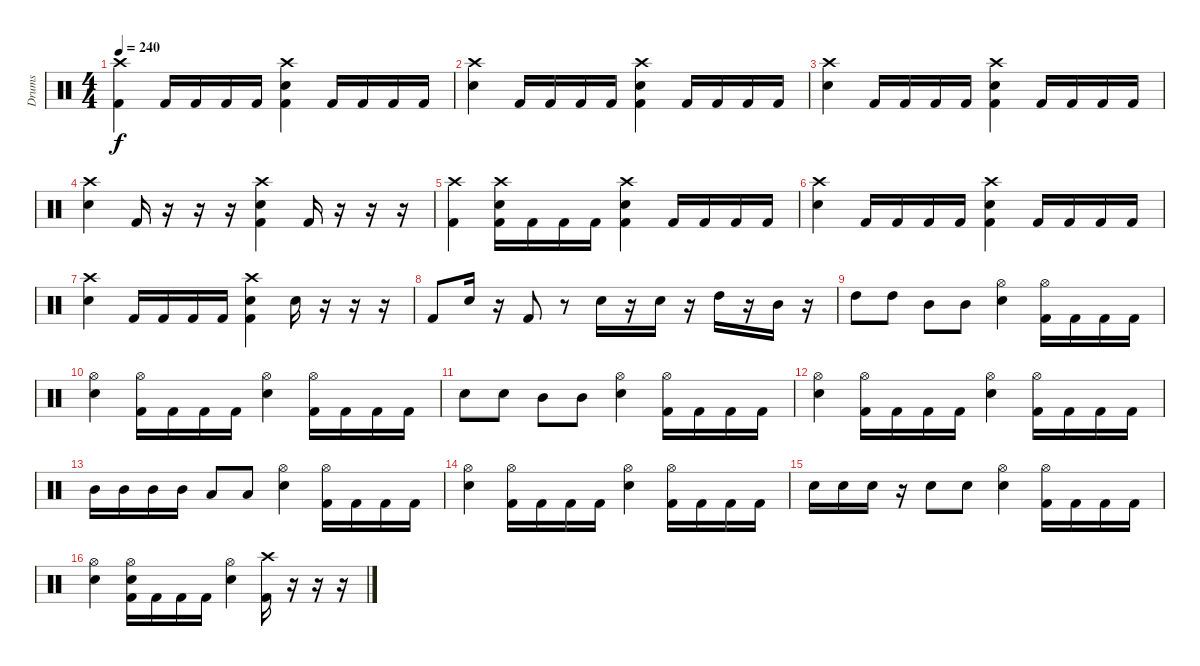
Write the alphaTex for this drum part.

\track ("Drums" "Drums") {instrument percussion}
\staff {score}
\articulation defaults
\ts (4 4)
\tempo 240
\clef neutral
\ks c
("Crash high (hit)" "Kick (hit) 2").4{dy f} "Kick (hit) 2".16 "Kick (hit) 2".16 "Kick (hit) 2".16 "Kick (hit) 2".16 ("Crash high (hit)" "Snare (hit) 2" "Kick (hit) 2").4 "Kick (hit) 2".16 "Kick (hit) 2".16 "Kick (hit) 2".16 "Kick (hit) 2".16 |
("Crash high (hit)" "Snare (hit) 2").4 "Kick (hit) 2".16 "Kick (hit) 2".16 "Kick (hit) 2".16 "Kick (hit) 2".16 ("Crash high (hit)" "Snare (hit) 2" "Kick (hit) 2").4 "Kick (hit) 2".16 "Kick (hit) 2".16 "Kick (hit) 2".16 "Kick (hit) 2".16 |
("Crash high (hit)" "Snare (hit) 2").4 "Kick (hit) 2".16 "Kick (hit) 2".16 "Kick (hit) 2".16 "Kick (hit) 2".16 ("Crash high (hit)" "Snare (hit) 2" "Kick (hit) 2").4 "Kick (hit) 2".16 "Kick (hit) 2".16 "Kick (hit) 2".16 "Kick (hit) 2".16 |
("Crash high (hit)" "Snare (hit) 2").4 "Kick (hit) 2".16 r.16 r.16 r.16 ("Crash high (hit)" "Snare (hit) 2" "Kick (hit) 2").4 "Kick (hit) 2".16 r.16 r.16 r.16 |
("Crash high (hit)" "Kick (hit) 2").4 ("Crash high (hit)" "Snare (hit) 2" "Kick (hit) 2").16 "Kick (hit) 2".16 "Kick (hit) 2".16 "Kick (hit) 2".16 ("Crash high (hit)" "Snare (hit) 2" "Kick (hit) 2").4 "Kick (hit) 2".16 "Kick (hit) 2".16 "Kick (hit) 2".16 "Kick (hit) 2".16 |
("Crash high (hit)" "Snare (hit) 2").4 "Kick (hit) 2".16 "Kick (hit) 2".16 "Kick (hit) 2".16 "Kick (hit) 2".16 ("Crash high (hit)" "Snare (hit) 2" "Kick (hit) 2").4 "Kick (hit) 2".16 "Kick (hit) 2".16 "Kick (hit) 2".16 "Kick (hit) 2".16 |
("Crash high (hit)" "Snare (hit) 2").4 "Kick (hit) 2".16 "Kick (hit) 2".16 "Kick (hit) 2".16 "Kick (hit) 2".16 ("Crash high (hit)" "Snare (hit) 2" "Kick (hit) 2").4 "Snare (hit) 2".16 r.16 r.16 r.16 |
"Kick (hit) 2".8 "Snare (hit) 2".16 r.16 "Kick (hit) 2".8 r.8 "Snare (hit) 2".16 r.16 "Snare (hit) 2".16 r.16 "High Tom (hit)".16 r.16 "Mid Tom (hit)".16 r.16 |
"High Tom (hit)".8 "High Tom (hit)".8 "Mid Tom (hit)".8 "Mid Tom (hit)".8 ("Hi-Hat (open)" "Snare (hit) 2").4 ("Hi-Hat (open)" "Kick (hit) 2").16 "Kick (hit) 2".16 "Kick (hit) 2".16 "Kick (hit) 2".16 |
("Hi-Hat (open)" "Snare (hit) 2").4 ("Hi-Hat (open)" "Kick (hit) 2").16 "Kick (hit) 2".16 "Kick (hit) 2".16 "Kick (hit) 2".16 ("Hi-Hat (open)" "Snare (hit) 2").4 ("Hi-Hat (open)" "Kick (hit) 2").16 "Kick (hit) 2".16 "Kick (hit) 2".16 "Kick (hit) 2".16 |
"Snare (hit) 2".8 "Snare (hit) 2".8 "Mid Tom (hit)".8 "Mid Tom (hit)".8 ("Hi-Hat (open)" "Snare (hit) 2").4 ("Hi-Hat (open)" "Kick (hit) 2").16 "Kick (hit) 2".16 "Kick (hit) 2".16 "Kick (hit) 2".16 |
("Hi-Hat (open)" "Snare (hit) 2").4 ("Hi-Hat (open)" "Kick (hit) 2").16 "Kick (hit) 2".16 "Kick (hit) 2".16 "Kick (hit) 2".16 ("Hi-Hat (open)" "Snare (hit) 2").4 ("Hi-Hat (open)" "Kick (hit) 2").16 "Kick (hit) 2".16 "Kick (hit) 2".16 "Kick (hit) 2".16 |
"Mid Tom (hit)".16 "Mid Tom (hit)".16 "Mid Tom (hit)".16 "Mid Tom (hit)".16 "Low Tom (hit)".8 "Low Tom (hit)".8 ("Hi-Hat (open)" "Snare (hit) 2").4 ("Hi-Hat (open)" "Kick (hit) 2").16 "Kick (hit) 2".16 "Kick (hit) 2".16 "Kick (hit) 2".16 |
("Hi-Hat (open)" "Snare (hit) 2").4 ("Hi-Hat (open)" "Kick (hit) 2").16 "Kick (hit) 2".16 "Kick (hit) 2".16 "Kick (hit) 2".16 ("Hi-Hat (open)" "Snare (hit) 2").4 ("Hi-Hat (open)" "Kick (hit) 2").16 "Kick (hit) 2".16 "Kick (hit) 2".16 "Kick (hit) 2".16 |
"Snare (hit) 2".16 "Snare (hit) 2".16 "Snare (hit) 2".16 r.16 "Snare (hit) 2".8 "Snare (hit) 2".8 ("Hi-Hat (open)" "Snare (hit) 2").4 ("Hi-Hat (open)" "Kick (hit) 2").16 "Kick (hit) 2".16 "Kick (hit) 2".16 "Kick (hit) 2".16 |
("Hi-Hat (open)" "Snare (hit) 2").4 ("Hi-Hat (open)" "Snare (hit) 2" "Kick (hit) 2").16 "Kick (hit) 2".16 "Kick (hit) 2".16 "Kick (hit) 2".16 ("Hi-Hat (open)" "Snare (hit) 2").4 ("Crash high (hit)" "Kick (hit) 2").16 r.16 r.16 r.16
